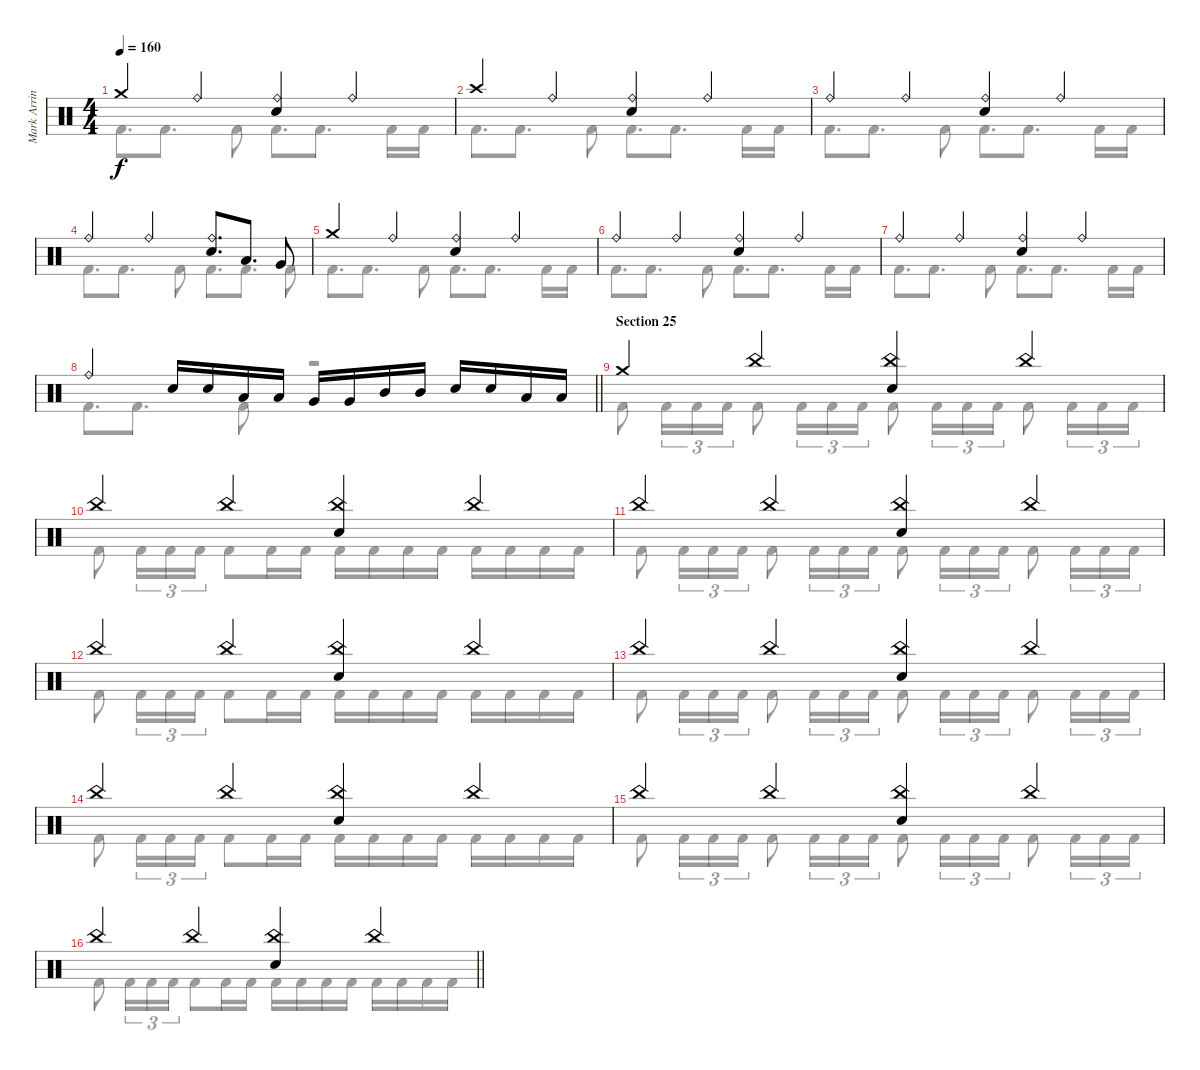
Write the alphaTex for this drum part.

\track ("Mark Arrington – drums" "Mark Arrin") {instrument percussion}
\staff {score}
\articulation defaults
\voice
\ts (4 4)
\tempo 160
\clef neutral
\ks c "Crash medium (hit)".4{dy f} "Ride (bell)".4
("Ride (bell)" "Electric Snare (hit)").4 "Ride (bell)".4 |
"Crash high (hit)".4 "Ride (bell)".4 ("Ride (bell)" "Electric Snare (hit)").4 "Ride (bell)".4 |
"Ride (bell)".4 "Ride (bell)".4 ("Ride (bell)" "Electric Snare (hit)").4 "Ride (bell)".4 |
"Ride (bell)".4 "Ride (bell)".4 ("Ride (bell)" "Electric Snare (hit)").8{d} "Low Tom (hit)".8{d} "Very Low Tom (hit)".8 |
"Crash medium (hit)".4 "Ride (bell)".4 ("Ride (bell)" "Electric Snare (hit)").4 "Ride (bell)".4 |
"Ride (bell)".4 "Ride (bell)".4 ("Ride (bell)" "Electric Snare (hit)").4 "Ride (bell)".4 |
"Ride (bell)".4 "Ride (bell)".4 ("Ride (bell)" "Electric Snare (hit)").4 "Ride (bell)".4 |
\barLineRight lightlight "Ride (bell)".4 "Electric Snare (hit)".16 "Electric Snare (hit)".16 "Low Tom (hit)".16 "Low Tom (hit)".16 "Very Low Tom (hit)".16 "Very Low Tom (hit)".16 "Mid Tom (hit)".16 "Mid Tom (hit)".16 "Electric Snare (hit)".16 "Electric Snare (hit)".16 "Low Tom (hit)".16 "Low Tom (hit)".16
|
\section ("" "Section 25")
"Crash medium (hit)".4 "China (hit)".4 ("China (hit)" "Electric Snare (hit)").4 "China (hit)".4 |
"China (hit)".4 "China (hit)".4 ("China (hit)" "Electric Snare (hit)").4 "China (hit)".4 |
"China (hit)".4 "China (hit)".4 ("China (hit)" "Electric Snare (hit)").4 "China (hit)".4 |
"China (hit)".4 "China (hit)".4 ("China (hit)" "Electric Snare (hit)").4 "China (hit)".4 |
"China (hit)".4 "China (hit)".4 ("China (hit)" "Electric Snare (hit)").4 "China (hit)".4 |
"China (hit)".4 "China (hit)".4 ("China (hit)" "Electric Snare (hit)").4 "China (hit)".4 |
"China (hit)".4 "China (hit)".4 ("China (hit)" "Electric Snare (hit)").4 "China (hit)".4 |
\barLineRight lightlight "China (hit)".4 "China (hit)".4
("China (hit)" "Electric Snare (hit)").4 "China (hit)".4
\voice
\clef neutral
\ottava regular
\simile none
\ks c "Kick (hit) 2".8{d dy f} "Kick (hit) 2".8{d} "Kick (hit) 2".8 "Kick (hit) 2".8{d} "Kick (hit) 2".8{d} "Kick (hit) 2".16 "Kick (hit) 2".16
|
"Kick (hit) 2".8{d} "Kick (hit) 2".8{d} "Kick (hit) 2".8 "Kick (hit) 2".8{d} "Kick (hit) 2".8{d} "Kick (hit) 2".16 "Kick (hit) 2".16 |
"Kick (hit) 2".8{d} "Kick (hit) 2".8{d} "Kick (hit) 2".8 "Kick (hit) 2".8{d} "Kick (hit) 2".8{d} "Kick (hit) 2".16 "Kick (hit) 2".16 |
"Kick (hit) 2".8{d} "Kick (hit) 2".8{d} "Kick (hit) 2".8 "Kick (hit) 2".8{d} "Kick (hit) 2".8{d} "Kick (hit) 2".8 |
"Kick (hit) 2".8{d} "Kick (hit) 2".8{d} "Kick (hit) 2".8 "Kick (hit) 2".8{d} "Kick (hit) 2".8{d} "Kick (hit) 2".16 "Kick (hit) 2".16 |
"Kick (hit) 2".8{d} "Kick (hit) 2".8{d} "Kick (hit) 2".8 "Kick (hit) 2".8{d} "Kick (hit) 2".8{d} "Kick (hit) 2".16 "Kick (hit) 2".16 |
"Kick (hit) 2".8{d} "Kick (hit) 2".8{d} "Kick (hit) 2".8 "Kick (hit) 2".8{d} "Kick (hit) 2".8{d} "Kick (hit) 2".16 "Kick (hit) 2".16 |
\barLineRight lightlight "Kick (hit) 2".8{d} "Kick (hit) 2".8{d} "Kick (hit) 2".8
r.2 |
"Kick (hit) 2".8 "Kick (hit) 2".16{tu (3 2)} "Kick (hit) 2".16{tu (3 2)} "Kick (hit) 2".16{tu (3 2)} "Kick (hit) 2".8 "Kick (hit) 2".16{tu (3 2)} "Kick (hit) 2".16{tu (3 2)} "Kick (hit) 2".16{tu (3 2)} "Kick (hit) 2".8 "Kick (hit) 2".16{tu (3 2)} "Kick (hit) 2".16{tu (3 2)} "Kick (hit) 2".16{tu (3 2)} "Kick (hit) 2".8 "Kick (hit) 2".16{tu (3 2)} "Kick (hit) 2".16{tu (3 2)} "Kick (hit) 2".16{tu (3 2)} |
"Kick (hit) 2".8 "Kick (hit) 2".16{tu (3 2)} "Kick (hit) 2".16{tu (3 2)} "Kick (hit) 2".16{tu (3 2)} "Kick (hit) 2".8 "Kick (hit) 2".16 "Kick (hit) 2".16 "Kick (hit) 2".16 "Kick (hit) 2".16 "Kick (hit) 2".16 "Kick (hit) 2".16 "Kick (hit) 2".16 "Kick (hit) 2".16 "Kick (hit) 2".16 "Kick (hit) 2".16 |
"Kick (hit) 2".8 "Kick (hit) 2".16{tu (3 2)} "Kick (hit) 2".16{tu (3 2)} "Kick (hit) 2".16{tu (3 2)} "Kick (hit) 2".8 "Kick (hit) 2".16{tu (3 2)} "Kick (hit) 2".16{tu (3 2)} "Kick (hit) 2".16{tu (3 2)} "Kick (hit) 2".8 "Kick (hit) 2".16{tu (3 2)} "Kick (hit) 2".16{tu (3 2)} "Kick (hit) 2".16{tu (3 2)} "Kick (hit) 2".8 "Kick (hit) 2".16{tu (3 2)} "Kick (hit) 2".16{tu (3 2)} "Kick (hit) 2".16{tu (3 2)} |
"Kick (hit) 2".8 "Kick (hit) 2".16{tu (3 2)} "Kick (hit) 2".16{tu (3 2)} "Kick (hit) 2".16{tu (3 2)} "Kick (hit) 2".8 "Kick (hit) 2".16 "Kick (hit) 2".16 "Kick (hit) 2".16 "Kick (hit) 2".16 "Kick (hit) 2".16 "Kick (hit) 2".16 "Kick (hit) 2".16 "Kick (hit) 2".16 "Kick (hit) 2".16 "Kick (hit) 2".16 |
"Kick (hit) 2".8 "Kick (hit) 2".16{tu (3 2)} "Kick (hit) 2".16{tu (3 2)} "Kick (hit) 2".16{tu (3 2)} "Kick (hit) 2".8 "Kick (hit) 2".16{tu (3 2)} "Kick (hit) 2".16{tu (3 2)} "Kick (hit) 2".16{tu (3 2)} "Kick (hit) 2".8 "Kick (hit) 2".16{tu (3 2)} "Kick (hit) 2".16{tu (3 2)} "Kick (hit) 2".16{tu (3 2)} "Kick (hit) 2".8 "Kick (hit) 2".16{tu (3 2)} "Kick (hit) 2".16{tu (3 2)} "Kick (hit) 2".16{tu (3 2)} |
"Kick (hit) 2".8 "Kick (hit) 2".16{tu (3 2)} "Kick (hit) 2".16{tu (3 2)} "Kick (hit) 2".16{tu (3 2)} "Kick (hit) 2".8 "Kick (hit) 2".16 "Kick (hit) 2".16 "Kick (hit) 2".16 "Kick (hit) 2".16 "Kick (hit) 2".16 "Kick (hit) 2".16 "Kick (hit) 2".16 "Kick (hit) 2".16 "Kick (hit) 2".16 "Kick (hit) 2".16 |
"Kick (hit) 2".8 "Kick (hit) 2".16{tu (3 2)} "Kick (hit) 2".16{tu (3 2)} "Kick (hit) 2".16{tu (3 2)} "Kick (hit) 2".8 "Kick (hit) 2".16{tu (3 2)} "Kick (hit) 2".16{tu (3 2)} "Kick (hit) 2".16{tu (3 2)} "Kick (hit) 2".8 "Kick (hit) 2".16{tu (3 2)} "Kick (hit) 2".16{tu (3 2)} "Kick (hit) 2".16{tu (3 2)} "Kick (hit) 2".8 "Kick (hit) 2".16{tu (3 2)} "Kick (hit) 2".16{tu (3 2)} "Kick (hit) 2".16{tu (3 2)} |
\barLineRight lightlight "Kick (hit) 2".8 "Kick (hit) 2".16{tu (3 2)} "Kick (hit) 2".16{tu (3 2)} "Kick (hit) 2".16{tu (3 2)} "Kick (hit) 2".8 "Kick (hit) 2".16 "Kick (hit) 2".16 "Kick (hit) 2".16 "Kick (hit) 2".16 "Kick (hit) 2".16 "Kick (hit) 2".16 "Kick (hit) 2".16 "Kick (hit) 2".16 "Kick (hit) 2".16 "Kick (hit) 2".16
